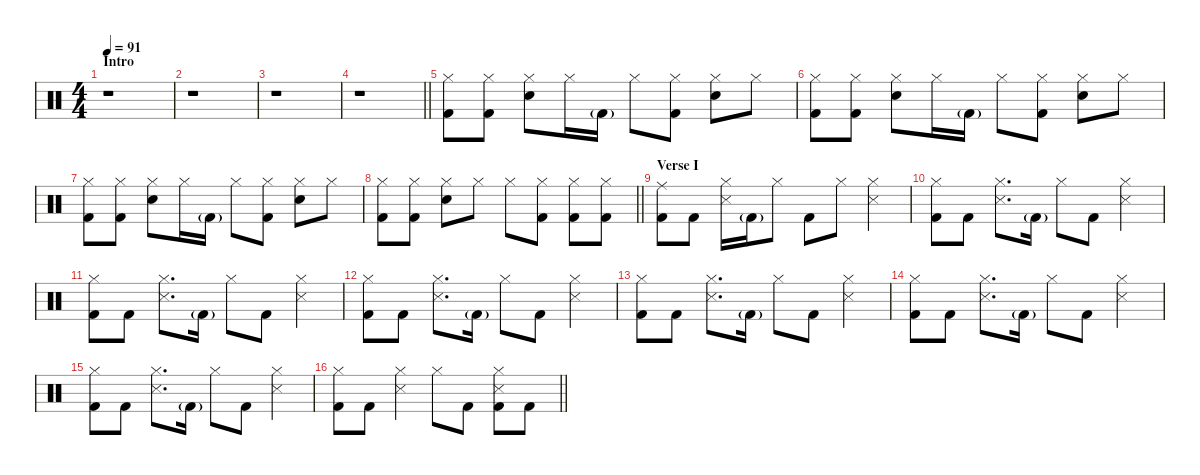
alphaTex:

\defaultSystemsLayout 4
\hideDynamics
\bracketExtendMode nobrackets
\singleTrackTrackNamePolicy hidden
\multiTrackTrackNamePolicy hidden
\otherSystemsTrackNameOrientation horizontal
\track ("Jose Pasillas" "drm.") {defaultSystemsLayout 4 instrument percussion}
\staff {score}
\articulation defaults
\ts (4 4)
\beaming (8 2 2 2 2)
\section ("" "Intro")
\tempo 91
\clef neutral
\ks c
r.1{dy f beam Down} |
r.1{beam Down} |
r.1{beam Down} |
\barLineRight lightlight
r.1{beam Down} |
("Hi-Hat (closed)" "Kick (hit) 2").8{beam Down} ("Hi-Hat (closed)" "Kick (hit) 2").8{beam Down} ("Hi-Hat (closed)" "Snare (hit) 2").8{beam Down} "Hi-Hat (closed)".16{beam Down} "Kick (hit) 2"{g}.16{dy mf beam Down} "Hi-Hat (closed)".8{dy f beam Down} ("Hi-Hat (closed)" "Kick (hit) 2").8{beam Down} ("Hi-Hat (closed)" "Snare (hit) 2").8{beam Down} "Hi-Hat (closed)".8{beam Down} |
("Hi-Hat (closed)" "Kick (hit) 2").8{beam Down} ("Hi-Hat (closed)" "Kick (hit) 2").8{beam Down} ("Hi-Hat (closed)" "Snare (hit) 2").8{beam Down} "Hi-Hat (closed)".16{beam Down} "Kick (hit) 2"{g}.16{dy mf beam Down} "Hi-Hat (closed)".8{dy f beam Down} ("Hi-Hat (closed)" "Kick (hit) 2").8{beam Down} ("Hi-Hat (closed)" "Snare (hit) 2").8{beam Down} "Hi-Hat (closed)".8{beam Down} |
("Hi-Hat (closed)" "Kick (hit) 2").8{beam Down} ("Hi-Hat (closed)" "Kick (hit) 2").8{beam Down} ("Hi-Hat (closed)" "Snare (hit) 2").8{beam Down} "Hi-Hat (closed)".16{beam Down} "Kick (hit) 2"{g}.16{dy mf beam Down} "Hi-Hat (closed)".8{dy f beam Down} ("Hi-Hat (closed)" "Kick (hit) 2").8{beam Down} ("Hi-Hat (closed)" "Snare (hit) 2").8{beam Down} "Hi-Hat (closed)".8{beam Down} |
\barLineRight lightlight
("Hi-Hat (closed)" "Kick (hit) 2").8{beam Down} ("Hi-Hat (closed)" "Kick (hit) 2").8{beam Down} ("Hi-Hat (closed)" "Snare (hit) 2").8{beam Down} "Hi-Hat (closed)".8{beam Down} "Hi-Hat (closed)".8{beam Down} ("Hi-Hat (closed)" "Kick (hit) 2").8{beam Down} ("Hi-Hat (closed)" "Kick (hit) 2").8{beam Down} ("Hi-Hat (closed)" "Kick (hit) 2").8{beam Down} |
\section ("" "Verse I")
("Ride (middle)" "Kick (hit) 2").8{beam Down} "Kick (hit) 2".8{beam Down} ("Hi-Hat (closed)" "Snare (side stick) 3").16{beam Down} "Kick (hit) 2"{g}.16{dy mf beam Down} "Hi-Hat (closed)".8{dy f beam Down} "Kick (hit) 2".8{beam Down} "Hi-Hat (closed)".8{beam Down} ("Hi-Hat (closed)" "Snare (side stick) 3").4{beam Down} |
("Hi-Hat (closed)" "Kick (hit) 2").8{beam Down} "Kick (hit) 2".8{beam Down} ("Hi-Hat (closed)" "Snare (side stick) 3").8{d beam Down} "Kick (hit) 2"{g}.16{dy mf beam Down} "Hi-Hat (closed)".8{dy f beam Down} "Kick (hit) 2".8{beam Down} ("Hi-Hat (closed)" "Snare (side stick) 3").4{beam Down} |
("Hi-Hat (closed)" "Kick (hit) 2").8{beam Down} "Kick (hit) 2".8{beam Down} ("Hi-Hat (closed)" "Snare (side stick) 3").8{d beam Down} "Kick (hit) 2"{g}.16{dy mf beam Down} "Hi-Hat (closed)".8{dy f beam Down} "Kick (hit) 2".8{beam Down} ("Hi-Hat (closed)" "Snare (side stick) 3").4{beam Down} |
("Hi-Hat (closed)" "Kick (hit) 2").8{beam Down} "Kick (hit) 2".8{beam Down} ("Hi-Hat (closed)" "Snare (side stick) 3").8{d beam Down} "Kick (hit) 2"{g}.16{dy mf beam Down} "Hi-Hat (closed)".8{dy f beam Down} "Kick (hit) 2".8{beam Down} ("Hi-Hat (closed)" "Snare (side stick) 3").4{beam Down} |
("Hi-Hat (closed)" "Kick (hit) 2").8{beam Down} "Kick (hit) 2".8{beam Down} ("Hi-Hat (closed)" "Snare (side stick) 3").8{d beam Down} "Kick (hit) 2"{g}.16{dy mf beam Down} "Hi-Hat (closed)".8{dy f beam Down} "Kick (hit) 2".8{beam Down} ("Hi-Hat (closed)" "Snare (side stick) 3").4{beam Down} |
("Hi-Hat (closed)" "Kick (hit) 2").8{beam Down} "Kick (hit) 2".8{beam Down} ("Hi-Hat (closed)" "Snare (side stick) 3").8{d beam Down} "Kick (hit) 2"{g}.16{dy mf beam Down} "Hi-Hat (closed)".8{dy f beam Down} "Kick (hit) 2".8{beam Down} ("Hi-Hat (closed)" "Snare (side stick) 3").4{beam Down} |
("Hi-Hat (closed)" "Kick (hit) 2").8{beam Down} "Kick (hit) 2".8{beam Down} ("Hi-Hat (closed)" "Snare (side stick) 3").8{d beam Down} "Kick (hit) 2"{g}.16{dy mf beam Down} "Hi-Hat (closed)".8{dy f beam Down} "Kick (hit) 2".8{beam Down} ("Hi-Hat (closed)" "Snare (side stick) 3").4{beam Down} |
\barLineRight lightlight
("Hi-Hat (closed)" "Kick (hit) 2").8{beam Down} "Kick (hit) 2".8{beam Down} ("Hi-Hat (closed)" "Snare (side stick) 3").4{beam Down} "Hi-Hat (closed)".8{beam Down} "Kick (hit) 2".8{beam Down} ("Hi-Hat (closed)" "Snare (side stick) 3" "Kick (hit) 2").8{beam Down} "Kick (hit) 2".8{beam Down}
